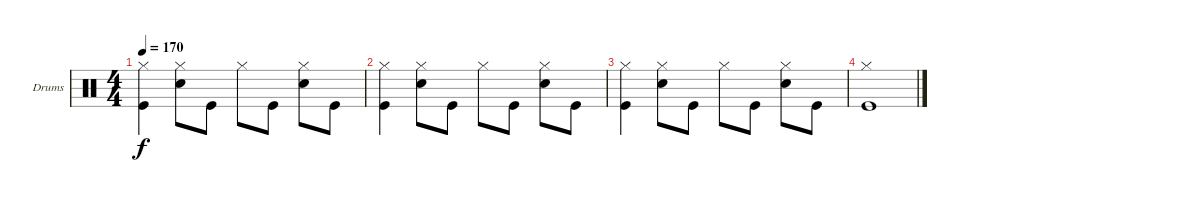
\bracketExtendMode groupsimilarinstruments
\firstSystemTrackNameOrientation horizontal
\otherSystemsTrackNameOrientation horizontal
\track ("Drumkit" "Drums") {instrument percussion}
\staff {score}
\articulation defaults
\ts (4 4)
\tempo 170
\clef neutral
\ks c
("Hi-Hat (closed)" "Kick (hit)").4{dy f} ("Hi-Hat (closed)" "Snare (hit) 2").8 "Kick (hit)".8 "Hi-Hat (closed)".8 "Kick (hit)".8 ("Hi-Hat (closed)" "Snare (hit) 2").8 "Kick (hit)".8 |
("Hi-Hat (closed)" "Kick (hit)").4 ("Hi-Hat (closed)" "Snare (hit) 2").8 "Kick (hit)".8 "Hi-Hat (closed)".8 "Kick (hit)".8 ("Hi-Hat (closed)" "Snare (hit) 2").8 "Kick (hit)".8 |
("Hi-Hat (closed)" "Kick (hit)").4 ("Hi-Hat (closed)" "Snare (hit) 2").8 "Kick (hit)".8 "Hi-Hat (closed)".8 "Kick (hit)".8 ("Hi-Hat (closed)" "Snare (hit) 2").8 "Kick (hit)".8 |
("Hi-Hat (closed)" "Kick (hit)").1
